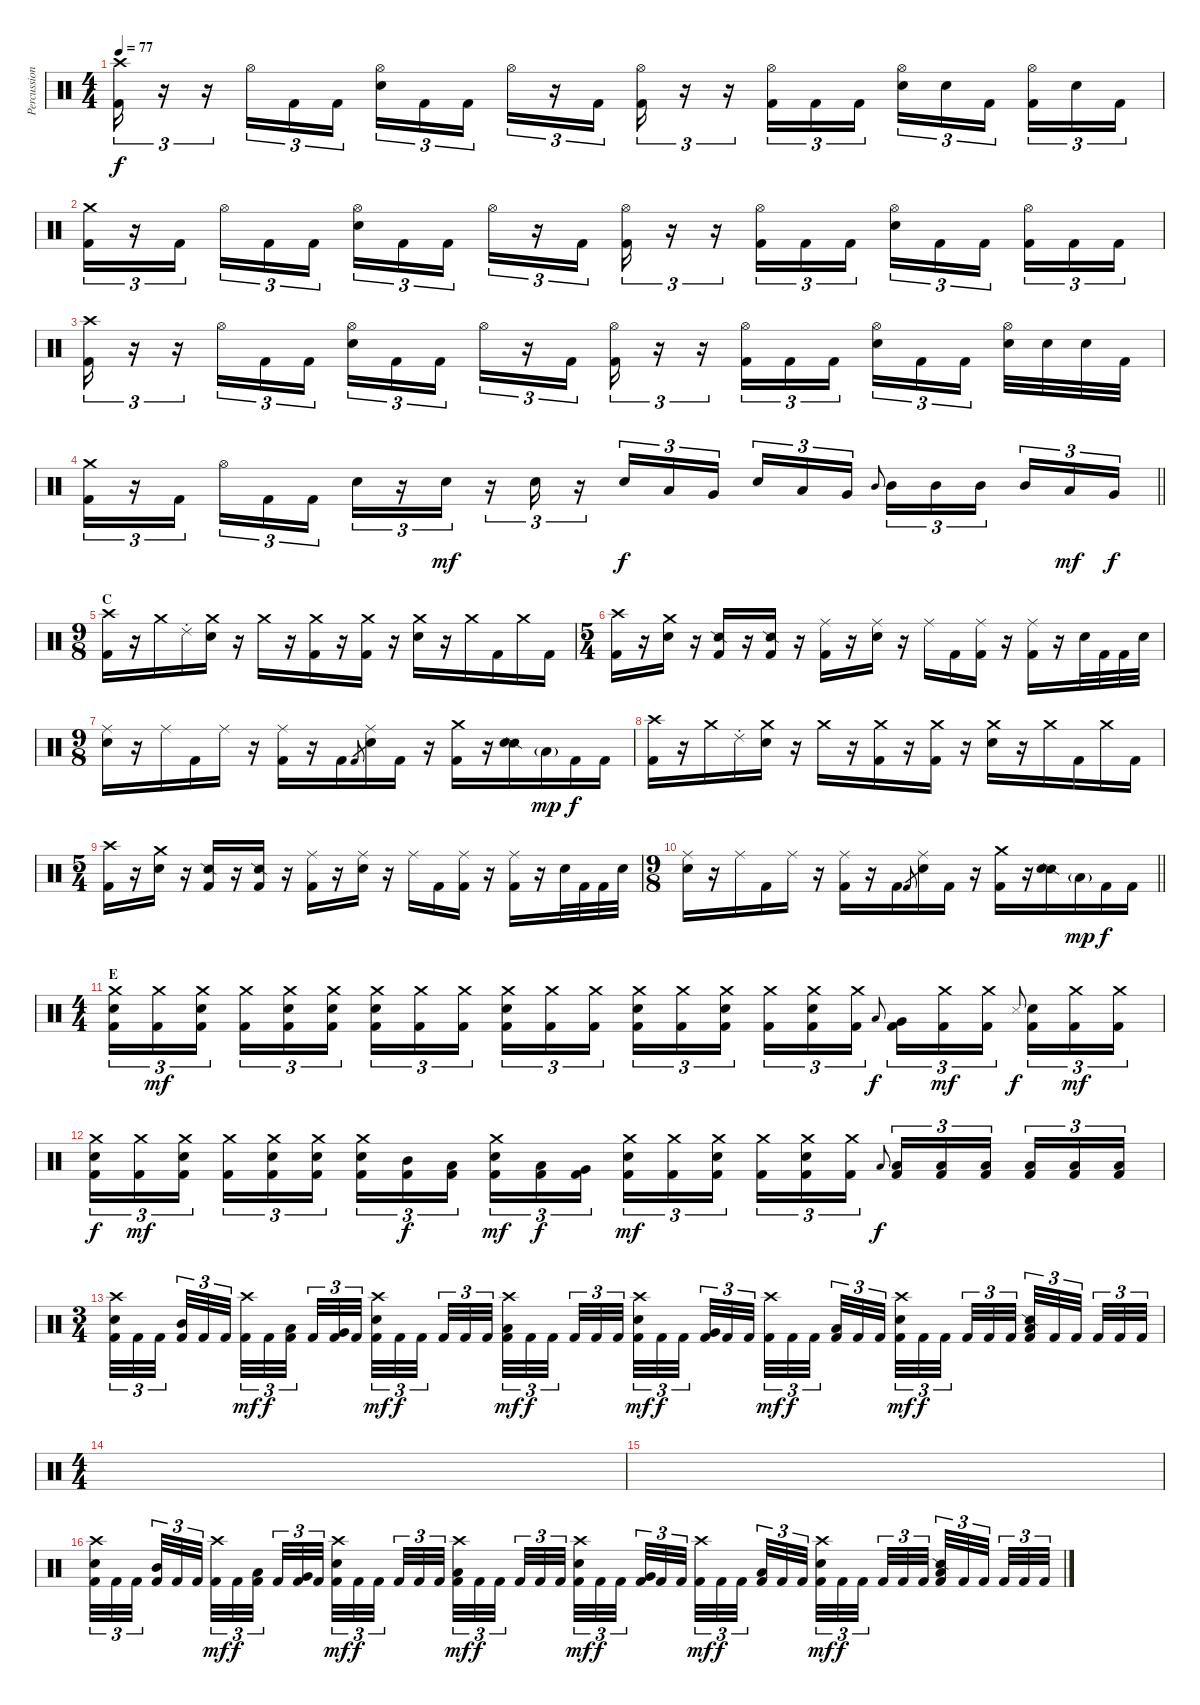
\track ("Percussion" "Percussion") {instrument percussion}
\staff {score}
\articulation defaults
\ts (4 4)
\tempo 77
\clef neutral
\ks c
("Crash high (hit)" "Kick (hit) 2").16{tu (3 2) dy f} r.16{tu (3 2)} r.16{tu (3 2)} "Hi-Hat (open)".16{tu (3 2)} "Kick (hit) 2".16{tu (3 2)} "Kick (hit) 2".16{tu (3 2)} ("Hi-Hat (open)" "Snare (hit) 2").16{tu (3 2)} "Kick (hit) 2".16{tu (3 2)} "Kick (hit) 2".16{tu (3 2) beam splitsecondary} "Hi-Hat (open)".16{tu (3 2)} r.16{tu (3 2)} "Kick (hit) 2".16{tu (3 2)} ("Hi-Hat (open)" "Kick (hit) 2").16{tu (3 2)} r.16{tu (3 2)} r.16{tu (3 2)} ("Hi-Hat (open)" "Kick (hit) 2").16{tu (3 2)} "Kick (hit) 2".16{tu (3 2)} "Kick (hit) 2".16{tu (3 2)} ("Hi-Hat (open)" "Snare (hit) 2").16{tu (3 2)} "Snare (hit) 2".16{tu (3 2)} "Kick (hit) 2".16{tu (3 2) beam splitsecondary} ("Hi-Hat (open)" "Kick (hit) 2").16{tu (3 2)} "Snare (hit) 2".16{tu (3 2)} "Kick (hit) 2".16{tu (3 2)} |
("Crash medium (hit)" "Kick (hit) 2").16{tu (3 2)} r.16{tu (3 2)} "Kick (hit) 2".16{tu (3 2) beam splitsecondary} "Hi-Hat (open)".16{tu (3 2)} "Kick (hit) 2".16{tu (3 2)} "Kick (hit) 2".16{tu (3 2)} ("Hi-Hat (open)" "Snare (hit) 2").16{tu (3 2)} "Kick (hit) 2".16{tu (3 2)} "Kick (hit) 2".16{tu (3 2) beam splitsecondary} "Hi-Hat (open)".16{tu (3 2)} r.16{tu (3 2)} "Kick (hit) 2".16{tu (3 2)} ("Hi-Hat (open)" "Kick (hit) 2").16{tu (3 2)} r.16{tu (3 2)} r.16{tu (3 2)} ("Hi-Hat (open)" "Kick (hit) 2").16{tu (3 2)} "Kick (hit) 2".16{tu (3 2)} "Kick (hit) 2".16{tu (3 2)} ("Hi-Hat (open)" "Snare (hit) 2").16{tu (3 2)} "Kick (hit) 2".16{tu (3 2)} "Kick (hit) 2".16{tu (3 2) beam splitsecondary} ("Hi-Hat (open)" "Kick (hit) 2").16{tu (3 2)} "Kick (hit) 2".16{tu (3 2)} "Kick (hit) 2".16{tu (3 2)} |
("Crash high (hit)" "Kick (hit) 2").16{tu (3 2)} r.16{tu (3 2)} r.16{tu (3 2)} "Hi-Hat (open)".16{tu (3 2)} "Kick (hit) 2".16{tu (3 2)} "Kick (hit) 2".16{tu (3 2)} ("Hi-Hat (open)" "Snare (hit) 2").16{tu (3 2)} "Kick (hit) 2".16{tu (3 2)} "Kick (hit) 2".16{tu (3 2) beam splitsecondary} "Hi-Hat (open)".16{tu (3 2)} r.16{tu (3 2)} "Kick (hit) 2".16{tu (3 2)} ("Hi-Hat (open)" "Kick (hit) 2").16{tu (3 2)} r.16{tu (3 2)} r.16{tu (3 2)} ("Hi-Hat (open)" "Kick (hit) 2").16{tu (3 2)} "Kick (hit) 2".16{tu (3 2)} "Kick (hit) 2".16{tu (3 2)} ("Hi-Hat (open)" "Snare (hit) 2").16{tu (3 2)} "Kick (hit) 2".16{tu (3 2)} "Kick (hit) 2".16{tu (3 2) beam splitsecondary} ("Hi-Hat (open)" "Snare (hit) 2").32 "Snare (hit) 2".32 "Snare (hit) 2".32 "Kick (hit) 2".32 |
\barLineRight lightlight
("Crash medium (hit)" "Kick (hit) 2").16{tu (3 2)} r.16{tu (3 2)} "Kick (hit) 2".16{tu (3 2) beam splitsecondary} "Hi-Hat (open)".16{tu (3 2)} "Kick (hit) 2".16{tu (3 2)} "Kick (hit) 2".16{tu (3 2)} "Snare (hit) 2".16{tu (3 2)} r.16{tu (3 2)} "Snare (hit) 2".16{tu (3 2) dy mf} r.16{tu (3 2)} "Snare (hit) 2".16{tu (3 2)} r.16{tu (3 2)} "Snare (hit) 2".16{tu (3 2) dy f} "Low Tom (hit)".16{tu (3 2)} "Very Low Tom (hit)".16{tu (3 2) beam splitsecondary} "Snare (hit) 2".16{tu (3 2)} "Low Tom (hit)".16{tu (3 2)} "Very Low Tom (hit)".16{tu (3 2)} "Mid Tom (hit)".8{gr onbeat} "Mid Tom (hit)".16{tu (3 2)} "Mid Tom (hit)".16{tu (3 2)} "Mid Tom (hit)".16{tu (3 2) beam splitsecondary} "Mid Tom (hit)".16{tu (3 2)} "Low Tom (hit)".16{tu (3 2) dy mf} "Very Low Tom (hit)".16{tu (3 2) dy f} |
\ts (9 8)
\section ("" "C")
("Crash high (hit)" "Kick (hit) 2").16 r.16 "Crash medium (hit)".16 "Ride (choke) 2".16 ("Crash medium (hit)" "Snare (hit) 2").16 r.16 "Crash medium (hit)".16 r.16 ("Crash medium (hit)" "Kick (hit) 2").16 r.16 ("Crash medium (hit)" "Kick (hit) 2").16 r.16 ("Crash medium (hit)" "Snare (hit) 2").16 r.16 "Crash medium (hit)".16 "Kick (hit) 2".16 "Crash medium (hit)".16 "Kick (hit) 2".16 |
\ts (5 4)
("Crash high (hit)" "Kick (hit) 2").16 r.16 ("Crash medium (hit)" "Snare (hit) 2").16 r.16 ("Snare (side stick) 2" "Kick (hit) 2").16 r.16 ("Snare (side stick) 2" "Kick (hit) 2").16 r.16 ("Ride (middle)" "Kick (hit) 2").16 r.16 ("Ride (middle)" "Snare (hit) 2").16 r.16 "Ride (middle)".16 "Kick (hit) 2".16 ("Ride (middle)" "Kick (hit) 2").16 r.16 ("Ride (middle)" "Kick (hit) 2").16 r.16 "Snare (hit) 2".32 "Kick (hit) 2".32 "Kick (hit) 2".32 "Snare (hit) 2".32 |
\ts (9 8)
("Ride (middle)" "Snare (hit) 2").16 r.16 "Ride (middle)".16 "Kick (hit) 2".16 "Ride (middle)".16 r.16 ("Ride (middle)" "Kick (hit) 2").16 r.16 "Kick (hit) 2".16 "Kick (hit) 2".8{gr} ("Ride (middle)" "Snare (hit) 2").16 "Kick (hit) 2".16 r.16 ("Crash medium (hit)" "Kick (hit) 2").16 r.16 ("Snare (side stick) 2" "Snare (hit) 2").16 "Low Tom (hit)"{g}.16{dy mp} "Kick (hit) 2".16{dy f} "Kick (hit) 2".16 |
("Crash high (hit)" "Kick (hit) 2").16 r.16 "Crash medium (hit)".16 "Ride (choke) 2".16 ("Crash medium (hit)" "Snare (hit) 2").16 r.16 "Crash medium (hit)".16 r.16 ("Crash medium (hit)" "Kick (hit) 2").16 r.16 ("Crash medium (hit)" "Kick (hit) 2").16 r.16 ("Crash medium (hit)" "Snare (hit) 2").16 r.16 "Crash medium (hit)".16 "Kick (hit) 2".16 "Crash medium (hit)".16 "Kick (hit) 2".16 |
\ts (5 4)
("Crash high (hit)" "Kick (hit) 2").16 r.16 ("Crash medium (hit)" "Snare (hit) 2").16 r.16 ("Snare (side stick) 2" "Kick (hit) 2").16 r.16 ("Snare (side stick) 2" "Kick (hit) 2").16 r.16 ("Ride (middle)" "Kick (hit) 2").16 r.16 ("Ride (middle)" "Snare (hit) 2").16 r.16 "Ride (middle)".16 "Kick (hit) 2".16 ("Ride (middle)" "Kick (hit) 2").16 r.16 ("Ride (middle)" "Kick (hit) 2").16 r.16 "Snare (hit) 2".32 "Kick (hit) 2".32 "Kick (hit) 2".32 "Snare (hit) 2".32 |
\ts (9 8)
\barLineRight lightlight
("Ride (middle)" "Snare (hit) 2").16 r.16 "Ride (middle)".16 "Kick (hit) 2".16 "Ride (middle)".16 r.16 ("Ride (middle)" "Kick (hit) 2").16 r.16 "Kick (hit) 2".16 "Kick (hit) 2".8{gr} ("Ride (middle)" "Snare (hit) 2").16 "Kick (hit) 2".16 r.16 ("Crash medium (hit)" "Kick (hit) 2").16 r.16 ("Snare (side stick) 2" "Snare (hit) 2").16 "Low Tom (hit)"{g}.16{dy mp} "Kick (hit) 2".16{dy f} "Kick (hit) 2".16 |
\ts (4 4)
\section ("" "E")
("Crash medium (hit)" "Snare (hit) 2" "Kick (hit) 2").16{tu (3 2)} ("Crash medium (hit)" "Kick (hit) 2").16{tu (3 2) dy mf} ("Crash medium (hit)" "Snare (hit) 2" "Kick (hit) 2").16{tu (3 2) beam splitsecondary} ("Crash medium (hit)" "Kick (hit) 2").16{tu (3 2)} ("Crash medium (hit)" "Snare (hit) 2" "Kick (hit) 2").16{tu (3 2)} ("Crash medium (hit)" "Snare (hit) 2" "Kick (hit) 2").16{tu (3 2)} ("Crash medium (hit)" "Snare (hit) 2" "Kick (hit) 2").16{tu (3 2)} ("Crash medium (hit)" "Kick (hit) 2").16{tu (3 2)} ("Crash medium (hit)" "Kick (hit) 2").16{tu (3 2) beam splitsecondary} ("Crash medium (hit)" "Snare (hit) 2" "Kick (hit) 2").16{tu (3 2)} ("Crash medium (hit)" "Kick (hit) 2").16{tu (3 2)} ("Crash medium (hit)" "Kick (hit) 2").16{tu (3 2)} ("Crash medium (hit)" "Snare (hit) 2" "Kick (hit) 2").16{tu (3 2)} ("Crash medium (hit)" "Kick (hit) 2").16{tu (3 2)} ("Crash medium (hit)" "Snare (hit) 2" "Kick (hit) 2").16{tu (3 2) beam splitsecondary} ("Crash medium (hit)" "Kick (hit) 2").16{tu (3 2)} ("Crash medium (hit)" "Snare (hit) 2" "Kick (hit) 2").16{tu (3 2)} ("Crash medium (hit)" "Kick (hit) 2").16{tu (3 2)} "Low Tom (hit)".8{gr onbeat dy f} ("Very Low Tom (hit)" "Kick (hit) 2").16{tu (3 2)} ("Crash medium (hit)" "Kick (hit) 2").16{tu (3 2) dy mf} ("Crash medium (hit)" "Kick (hit) 2").16{tu (3 2)} "Metronome (hit)".8{gr onbeat dy f beam splitsecondary} ("Snare (hit) 2" "Kick (hit) 2").16{tu (3 2)} ("Crash medium (hit)" "Kick (hit) 2").16{tu (3 2) dy mf} ("Crash medium (hit)" "Kick (hit) 2").16{tu (3 2)} |
("Crash medium (hit)" "Snare (hit) 2" "Kick (hit) 2").16{tu (3 2) dy f} ("Crash medium (hit)" "Kick (hit) 2").16{tu (3 2) dy mf} ("Crash medium (hit)" "Snare (hit) 2" "Kick (hit) 2").16{tu (3 2) beam splitsecondary} ("Crash medium (hit)" "Kick (hit) 2").16{tu (3 2)} ("Crash medium (hit)" "Snare (hit) 2" "Kick (hit) 2").16{tu (3 2)} ("Crash medium (hit)" "Snare (hit) 2" "Kick (hit) 2").16{tu (3 2)} ("Crash medium (hit)" "Snare (hit) 2" "Kick (hit) 2").16{tu (3 2)} ("Mid Tom (hit)" "Kick (hit) 2").16{tu (3 2) dy f} ("Low Tom (hit)" "Kick (hit) 2").16{tu (3 2) beam splitsecondary} ("Crash medium (hit)" "Snare (hit) 2" "Kick (hit) 2").16{tu (3 2) dy mf} ("Low Tom (hit)" "Kick (hit) 2").16{tu (3 2) dy f} ("Very Low Tom (hit)" "Kick (hit) 2").16{tu (3 2)} ("Crash medium (hit)" "Snare (hit) 2" "Kick (hit) 2").16{tu (3 2) dy mf} ("Crash medium (hit)" "Kick (hit) 2").16{tu (3 2)} ("Crash medium (hit)" "Snare (hit) 2" "Kick (hit) 2").16{tu (3 2) beam splitsecondary} ("Crash medium (hit)" "Kick (hit) 2").16{tu (3 2)} ("Crash medium (hit)" "Snare (hit) 2" "Kick (hit) 2").16{tu (3 2)} ("Crash medium (hit)" "Kick (hit) 2").16{tu (3 2)} "Low Tom (hit)".8{gr onbeat dy f} ("Low Tom (hit)" "Kick (hit) 2").16{tu (3 2)} ("Low Tom (hit)" "Kick (hit) 2").16{tu (3 2)} ("Low Tom (hit)" "Kick (hit) 2").16{tu (3 2) beam splitsecondary} ("Low Tom (hit)" "Kick (hit) 2").16{tu (3 2)} ("Low Tom (hit)" "Kick (hit) 2").16{tu (3 2)} ("Low Tom (hit)" "Kick (hit) 2").16{tu (3 2)} |
\ts (3 4)
("Crash high (hit)" "Snare (hit) 2" "Kick (hit) 2").32{tu (3 2)} "Kick (hit) 2".32{tu (3 2)} "Kick (hit) 2".32{tu (3 2) beam splitsecondary} ("Mid Tom (hit)" "Kick (hit) 2").32{tu (3 2)} "Kick (hit) 2".32{tu (3 2)} "Kick (hit) 2".32{tu (3 2) beam splitsecondary} ("Crash high (hit)" "Kick (hit) 2").32{tu (3 2) dy mf} "Kick (hit) 2".32{tu (3 2) dy f} ("Low Tom (hit)" "Kick (hit) 2").32{tu (3 2) beam splitsecondary} "Kick (hit) 2".32{tu (3 2)} ("Very Low Tom (hit)" "Kick (hit) 2").32{tu (3 2)} "Kick (hit) 2".32{tu (3 2)} ("Crash high (hit)" "Snare (hit) 2" "Kick (hit) 2").32{tu (3 2) dy mf} "Kick (hit) 2".32{tu (3 2) dy f} "Kick (hit) 2".32{tu (3 2) beam splitsecondary} "Kick (hit) 2".32{tu (3 2)} "Kick (hit) 2".32{tu (3 2)} "Kick (hit) 2".32{tu (3 2) beam splitsecondary} ("Crash high (hit)" "Low Tom (hit)" "Kick (hit) 2").32{tu (3 2) dy mf} "Kick (hit) 2".32{tu (3 2) dy f} "Kick (hit) 2".32{tu (3 2) beam splitsecondary} "Kick (hit) 2".32{tu (3 2)} "Kick (hit) 2".32{tu (3 2)} "Kick (hit) 2".32{tu (3 2)} ("Crash high (hit)" "Snare (hit) 2" "Kick (hit) 2").32{tu (3 2) dy mf} "Kick (hit) 2".32{tu (3 2) dy f} "Kick (hit) 2".32{tu (3 2) beam splitsecondary} ("Very Low Tom (hit)" "Kick (hit) 2").32{tu (3 2)} "Kick (hit) 2".32{tu (3 2)} "Kick (hit) 2".32{tu (3 2) beam splitsecondary} ("Crash high (hit)" "Kick (hit) 2").32{tu (3 2) dy mf} "Kick (hit) 2".32{tu (3 2) dy f} "Kick (hit) 2".32{tu (3 2) beam splitsecondary} ("Low Tom (hit)" "Kick (hit) 2").32{tu (3 2)} "Kick (hit) 2".32{tu (3 2)} "Kick (hit) 2".32{tu (3 2)} ("Crash high (hit)" "Snare (hit) 2" "Kick (hit) 2").32{tu (3 2) dy mf} "Kick (hit) 2".32{tu (3 2) dy f} "Kick (hit) 2".32{tu (3 2) beam splitsecondary} "Kick (hit) 2".32{tu (3 2)} "Kick (hit) 2".32{tu (3 2)} "Kick (hit) 2".32{tu (3 2) beam splitsecondary} ("Snare (side stick) 2" "Low Floor Tom (hit)" "Kick (hit) 2").32{tu (3 2)} "Kick (hit) 2".32{tu (3 2)} "Kick (hit) 2".32{tu (3 2) beam splitsecondary} "Kick (hit) 2".32{tu (3 2)} "Kick (hit) 2".32{tu (3 2)} "Kick (hit) 2".32{tu (3 2)} |
\ts (4 4)
|
|
("Crash high (hit)" "Snare (hit) 2" "Kick (hit) 2").32{tu (3 2)} "Kick (hit) 2".32{tu (3 2)} "Kick (hit) 2".32{tu (3 2) beam splitsecondary} ("Mid Tom (hit)" "Kick (hit) 2").32{tu (3 2)} "Kick (hit) 2".32{tu (3 2)} "Kick (hit) 2".32{tu (3 2) beam splitsecondary} ("Crash high (hit)" "Kick (hit) 2").32{tu (3 2) dy mf} "Kick (hit) 2".32{tu (3 2) dy f} ("Low Tom (hit)" "Kick (hit) 2").32{tu (3 2) beam splitsecondary} "Kick (hit) 2".32{tu (3 2)} ("Very Low Tom (hit)" "Kick (hit) 2").32{tu (3 2)} "Kick (hit) 2".32{tu (3 2)} ("Crash high (hit)" "Snare (hit) 2" "Kick (hit) 2").32{tu (3 2) dy mf} "Kick (hit) 2".32{tu (3 2) dy f} "Kick (hit) 2".32{tu (3 2) beam splitsecondary} "Kick (hit) 2".32{tu (3 2)} "Kick (hit) 2".32{tu (3 2)} "Kick (hit) 2".32{tu (3 2) beam splitsecondary} ("Crash high (hit)" "Low Tom (hit)" "Kick (hit) 2").32{tu (3 2) dy mf} "Kick (hit) 2".32{tu (3 2) dy f} "Kick (hit) 2".32{tu (3 2) beam splitsecondary} "Kick (hit) 2".32{tu (3 2)} "Kick (hit) 2".32{tu (3 2)} "Kick (hit) 2".32{tu (3 2)} ("Crash high (hit)" "Snare (hit) 2" "Kick (hit) 2").32{tu (3 2) dy mf} "Kick (hit) 2".32{tu (3 2) dy f} "Kick (hit) 2".32{tu (3 2) beam splitsecondary} ("Very Low Tom (hit)" "Kick (hit) 2").32{tu (3 2)} "Kick (hit) 2".32{tu (3 2)} "Kick (hit) 2".32{tu (3 2) beam splitsecondary} ("Crash high (hit)" "Kick (hit) 2").32{tu (3 2) dy mf} "Kick (hit) 2".32{tu (3 2) dy f} "Kick (hit) 2".32{tu (3 2) beam splitsecondary} ("Low Tom (hit)" "Kick (hit) 2").32{tu (3 2)} "Kick (hit) 2".32{tu (3 2)} "Kick (hit) 2".32{tu (3 2)} ("Crash high (hit)" "Snare (hit) 2" "Kick (hit) 2").32{tu (3 2) dy mf} "Kick (hit) 2".32{tu (3 2) dy f} "Kick (hit) 2".32{tu (3 2) beam splitsecondary} "Kick (hit) 2".32{tu (3 2)} "Kick (hit) 2".32{tu (3 2)} "Kick (hit) 2".32{tu (3 2) beam splitsecondary} ("Snare (side stick) 2" "Low Floor Tom (hit)" "Kick (hit) 2").32{tu (3 2)} "Kick (hit) 2".32{tu (3 2)} "Kick (hit) 2".32{tu (3 2) beam splitsecondary} "Kick (hit) 2".32{tu (3 2)} "Kick (hit) 2".32{tu (3 2)} "Kick (hit) 2".32{tu (3 2)}
